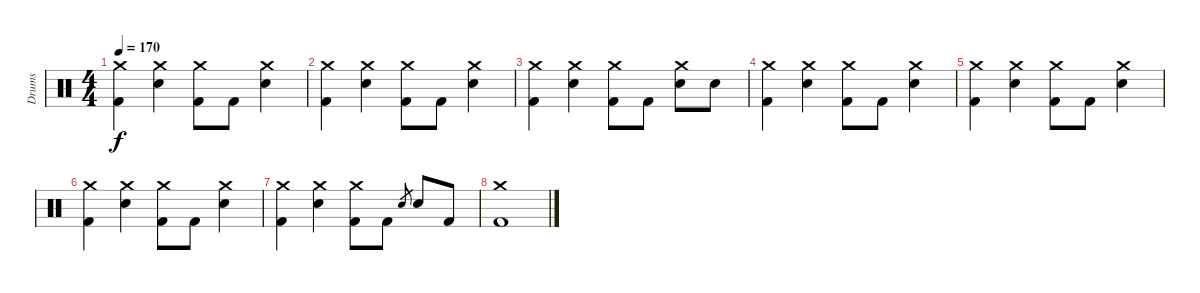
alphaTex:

\track ("Drums" "Drums") {instrument percussion}
\staff {score}
\articulation defaults
\ts (4 4)
\tempo 170
\clef neutral
\ks c
("Crash medium (hit)" "Kick (hit) 2").4{dy f} ("Crash medium (hit)" "Electric Snare (hit)").4 ("Crash medium (hit)" "Kick (hit) 2").8 "Kick (hit) 2".8 ("Crash medium (hit)" "Electric Snare (hit)").4 |
("Crash medium (hit)" "Kick (hit) 2").4 ("Crash medium (hit)" "Electric Snare (hit)").4 ("Crash medium (hit)" "Kick (hit) 2").8 "Kick (hit) 2".8 ("Crash medium (hit)" "Electric Snare (hit)").4 |
("Crash medium (hit)" "Kick (hit) 2").4 ("Crash medium (hit)" "Electric Snare (hit)").4 ("Crash medium (hit)" "Kick (hit) 2").8 "Kick (hit) 2".8 ("Crash medium (hit)" "Electric Snare (hit)").8 "Electric Snare (hit)".8 |
("Crash medium (hit)" "Kick (hit) 2").4 ("Crash medium (hit)" "Electric Snare (hit)").4 ("Crash medium (hit)" "Kick (hit) 2").8 "Kick (hit) 2".8 ("Crash medium (hit)" "Electric Snare (hit)").4 |
("Crash medium (hit)" "Kick (hit) 2").4 ("Crash medium (hit)" "Electric Snare (hit)").4 ("Crash medium (hit)" "Kick (hit) 2").8 "Kick (hit) 2".8 ("Crash medium (hit)" "Electric Snare (hit)").4 |
("Crash medium (hit)" "Kick (hit) 2").4 ("Crash medium (hit)" "Electric Snare (hit)").4 ("Crash medium (hit)" "Kick (hit) 2").8 "Kick (hit) 2".8 ("Crash medium (hit)" "Electric Snare (hit)").4 |
("Crash medium (hit)" "Kick (hit) 2").4 ("Crash medium (hit)" "Electric Snare (hit)").4 ("Crash medium (hit)" "Kick (hit) 2").8 "Kick (hit) 2".8 "Electric Snare (hit)".8{gr} "Electric Snare (hit)".8 "Kick (hit) 2".8 |
("Crash medium (hit)" "Kick (hit) 2").1
